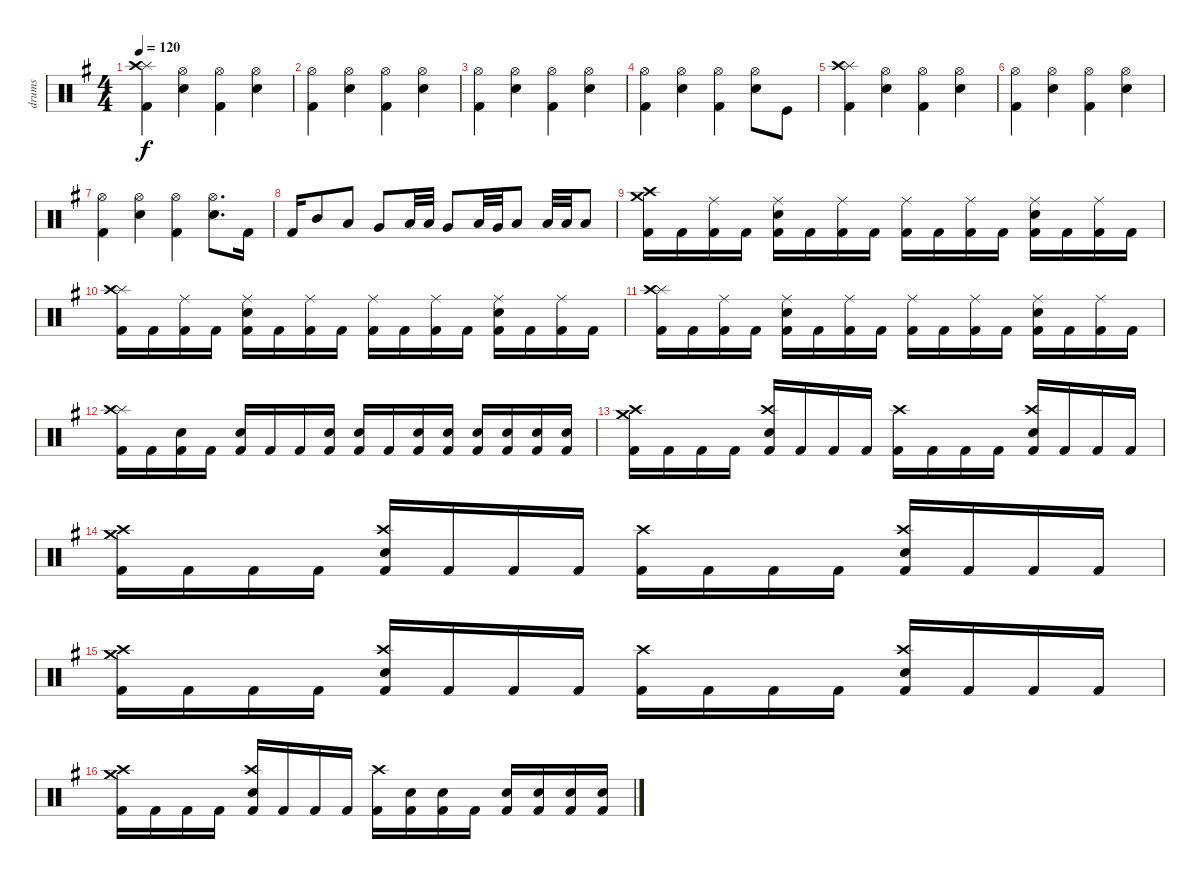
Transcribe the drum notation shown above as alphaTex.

\track ("drums" "drums") {instrument percussion}
\staff {score}
\articulation defaults
\ts (4 4)
\tempo 120
\clef neutral
\ks eminor
("Kick (hit) 2" "Splash (hit)" "Crash high (hit)").4{dy f} ("Electric Snare (hit)" "Hi-Hat (open)").4 ("Kick (hit) 2" "Hi-Hat (open)").4 ("Electric Snare (hit)" "Hi-Hat (open)").4 |
("Kick (hit) 2" "Hi-Hat (open)").4 ("Electric Snare (hit)" "Hi-Hat (open)").4 ("Kick (hit) 2" "Hi-Hat (open)").4 ("Electric Snare (hit)" "Hi-Hat (open)").4 |
("Kick (hit) 2" "Hi-Hat (open)").4 ("Electric Snare (hit)" "Hi-Hat (open)").4 ("Kick (hit) 2" "Hi-Hat (open)").4 ("Electric Snare (hit)" "Hi-Hat (open)").4 |
("Kick (hit) 2" "Hi-Hat (open)").4 ("Electric Snare (hit)" "Hi-Hat (open)").4 ("Kick (hit) 2" "Hi-Hat (open)").4 ("Electric Snare (hit)" "Hi-Hat (open)").8 "Kick (hit)".8 |
("Kick (hit) 2" "Splash (hit)" "Crash high (hit)").4 ("Electric Snare (hit)" "Hi-Hat (open)").4 ("Kick (hit) 2" "Hi-Hat (open)").4 ("Electric Snare (hit)" "Hi-Hat (open)").4 |
("Kick (hit) 2" "Hi-Hat (open)").4 ("Electric Snare (hit)" "Hi-Hat (open)").4 ("Kick (hit) 2" "Hi-Hat (open)").4 ("Electric Snare (hit)" "Hi-Hat (open)").4 |
("Kick (hit) 2" "Hi-Hat (open)").4 ("Electric Snare (hit)" "Hi-Hat (open)").4 ("Kick (hit) 2" "Hi-Hat (open)").4 ("Electric Snare (hit)" "Hi-Hat (open)").8{d} "Kick (hit) 2".16 |
"Kick (hit) 2".16 "Mid Tom (hit)".8 "Low Tom (hit)".8 "Very Low Tom (hit)".8 "Low Floor Tom (hit)".32 "Low Floor Tom (hit)".32 "Very Low Tom (hit)".8 "Low Floor Tom (hit)".32 "Very Low Tom (hit)".32 "Low Floor Tom (hit)".8 "Low Floor Tom (hit)".32 "Low Floor Tom (hit)".32 "Low Floor Tom (hit)".8 |
("Kick (hit) 2" "Crash high (hit)" "Crash medium (hit)").16 "Kick (hit) 2".16 ("Kick (hit) 2" "Ride (middle)").16 "Kick (hit) 2".16 ("Kick (hit) 2" "Electric Snare (hit)" "Ride (middle)").16 "Kick (hit) 2".16 ("Kick (hit) 2" "Ride (middle)").16 "Kick (hit) 2".16 ("Kick (hit) 2" "Ride (middle)").16 "Kick (hit) 2".16 ("Kick (hit) 2" "Ride (middle)").16 "Kick (hit) 2".16 ("Kick (hit) 2" "Electric Snare (hit)" "Ride (middle)").16 "Kick (hit) 2".16 ("Kick (hit) 2" "Ride (middle)").16 "Kick (hit) 2".16 |
("Kick (hit) 2" "Splash (hit)" "Crash high (hit)").16 "Kick (hit) 2".16 ("Kick (hit) 2" "Ride (middle)").16 "Kick (hit) 2".16 ("Kick (hit) 2" "Electric Snare (hit)" "Ride (middle)").16 "Kick (hit) 2".16 ("Kick (hit) 2" "Ride (middle)").16 "Kick (hit) 2".16 ("Kick (hit) 2" "Ride (middle)").16 "Kick (hit) 2".16 ("Kick (hit) 2" "Ride (middle)").16 "Kick (hit) 2".16 ("Kick (hit) 2" "Electric Snare (hit)" "Ride (middle)").16 "Kick (hit) 2".16 ("Kick (hit) 2" "Ride (middle)").16 "Kick (hit) 2".16 |
("Kick (hit) 2" "Splash (hit)" "Crash high (hit)").16 "Kick (hit) 2".16 ("Kick (hit) 2" "Ride (middle)").16 "Kick (hit) 2".16 ("Kick (hit) 2" "Electric Snare (hit)" "Ride (middle)").16 "Kick (hit) 2".16 ("Kick (hit) 2" "Ride (middle)").16 "Kick (hit) 2".16 ("Kick (hit) 2" "Ride (middle)").16 "Kick (hit) 2".16 ("Kick (hit) 2" "Ride (middle)").16 "Kick (hit) 2".16 ("Kick (hit) 2" "Electric Snare (hit)" "Ride (middle)").16 "Kick (hit) 2".16 ("Kick (hit) 2" "Ride (middle)").16 "Kick (hit) 2".16 |
("Kick (hit) 2" "Splash (hit)" "Crash high (hit)").16 "Kick (hit) 2".16 ("Kick (hit) 2" "Electric Snare (hit)").16 "Kick (hit) 2".16 ("Kick (hit) 2" "Electric Snare (hit)").16 "Kick (hit) 2".16 "Kick (hit) 2".16 ("Kick (hit) 2" "Electric Snare (hit)").16 ("Kick (hit) 2" "Electric Snare (hit)").16 "Kick (hit) 2".16 ("Kick (hit) 2" "Electric Snare (hit)").16 ("Kick (hit) 2" "Electric Snare (hit)").16 ("Kick (hit) 2" "Electric Snare (hit)").16 ("Kick (hit) 2" "Electric Snare (hit)").16 ("Kick (hit) 2" "Electric Snare (hit)").16 ("Kick (hit) 2" "Electric Snare (hit)").16 |
("Kick (hit) 2" "Crash high (hit)" "Crash medium (hit)").16 "Kick (hit) 2".16 "Kick (hit) 2".16 "Kick (hit) 2".16 ("Kick (hit) 2" "Electric Snare (hit)" "Crash high (hit)").16 "Kick (hit) 2".16 "Kick (hit) 2".16 "Kick (hit) 2".16 ("Kick (hit) 2" "Crash high (hit)").16 "Kick (hit) 2".16 "Kick (hit) 2".16 "Kick (hit) 2".16 ("Kick (hit) 2" "Electric Snare (hit)" "Crash high (hit)").16 "Kick (hit) 2".16 "Kick (hit) 2".16 "Kick (hit) 2".16 |
("Kick (hit) 2" "Crash high (hit)" "Crash medium (hit)").16 "Kick (hit) 2".16 "Kick (hit) 2".16 "Kick (hit) 2".16 ("Kick (hit) 2" "Electric Snare (hit)" "Crash high (hit)").16 "Kick (hit) 2".16 "Kick (hit) 2".16 "Kick (hit) 2".16 ("Kick (hit) 2" "Crash high (hit)").16 "Kick (hit) 2".16 "Kick (hit) 2".16 "Kick (hit) 2".16 ("Kick (hit) 2" "Electric Snare (hit)" "Crash high (hit)").16 "Kick (hit) 2".16 "Kick (hit) 2".16 "Kick (hit) 2".16 |
("Kick (hit) 2" "Crash high (hit)" "Crash medium (hit)").16 "Kick (hit) 2".16 "Kick (hit) 2".16 "Kick (hit) 2".16 ("Kick (hit) 2" "Electric Snare (hit)" "Crash high (hit)").16 "Kick (hit) 2".16 "Kick (hit) 2".16 "Kick (hit) 2".16 ("Kick (hit) 2" "Crash high (hit)").16 "Kick (hit) 2".16 "Kick (hit) 2".16 "Kick (hit) 2".16 ("Kick (hit) 2" "Electric Snare (hit)" "Crash high (hit)").16 "Kick (hit) 2".16 "Kick (hit) 2".16 "Kick (hit) 2".16 |
("Kick (hit) 2" "Crash high (hit)" "Crash medium (hit)").16 "Kick (hit) 2".16 "Kick (hit) 2".16 "Kick (hit) 2".16 ("Kick (hit) 2" "Electric Snare (hit)" "Crash high (hit)").16 "Kick (hit) 2".16 "Kick (hit) 2".16 "Kick (hit) 2".16 ("Kick (hit) 2" "Crash high (hit)").16 ("Kick (hit) 2" "Electric Snare (hit)").16 ("Kick (hit) 2" "Electric Snare (hit)").16 "Kick (hit) 2".16 ("Kick (hit) 2" "Electric Snare (hit)").16 ("Kick (hit) 2" "Electric Snare (hit)").16 ("Kick (hit) 2" "Electric Snare (hit)").16 ("Kick (hit) 2" "Electric Snare (hit)").16
